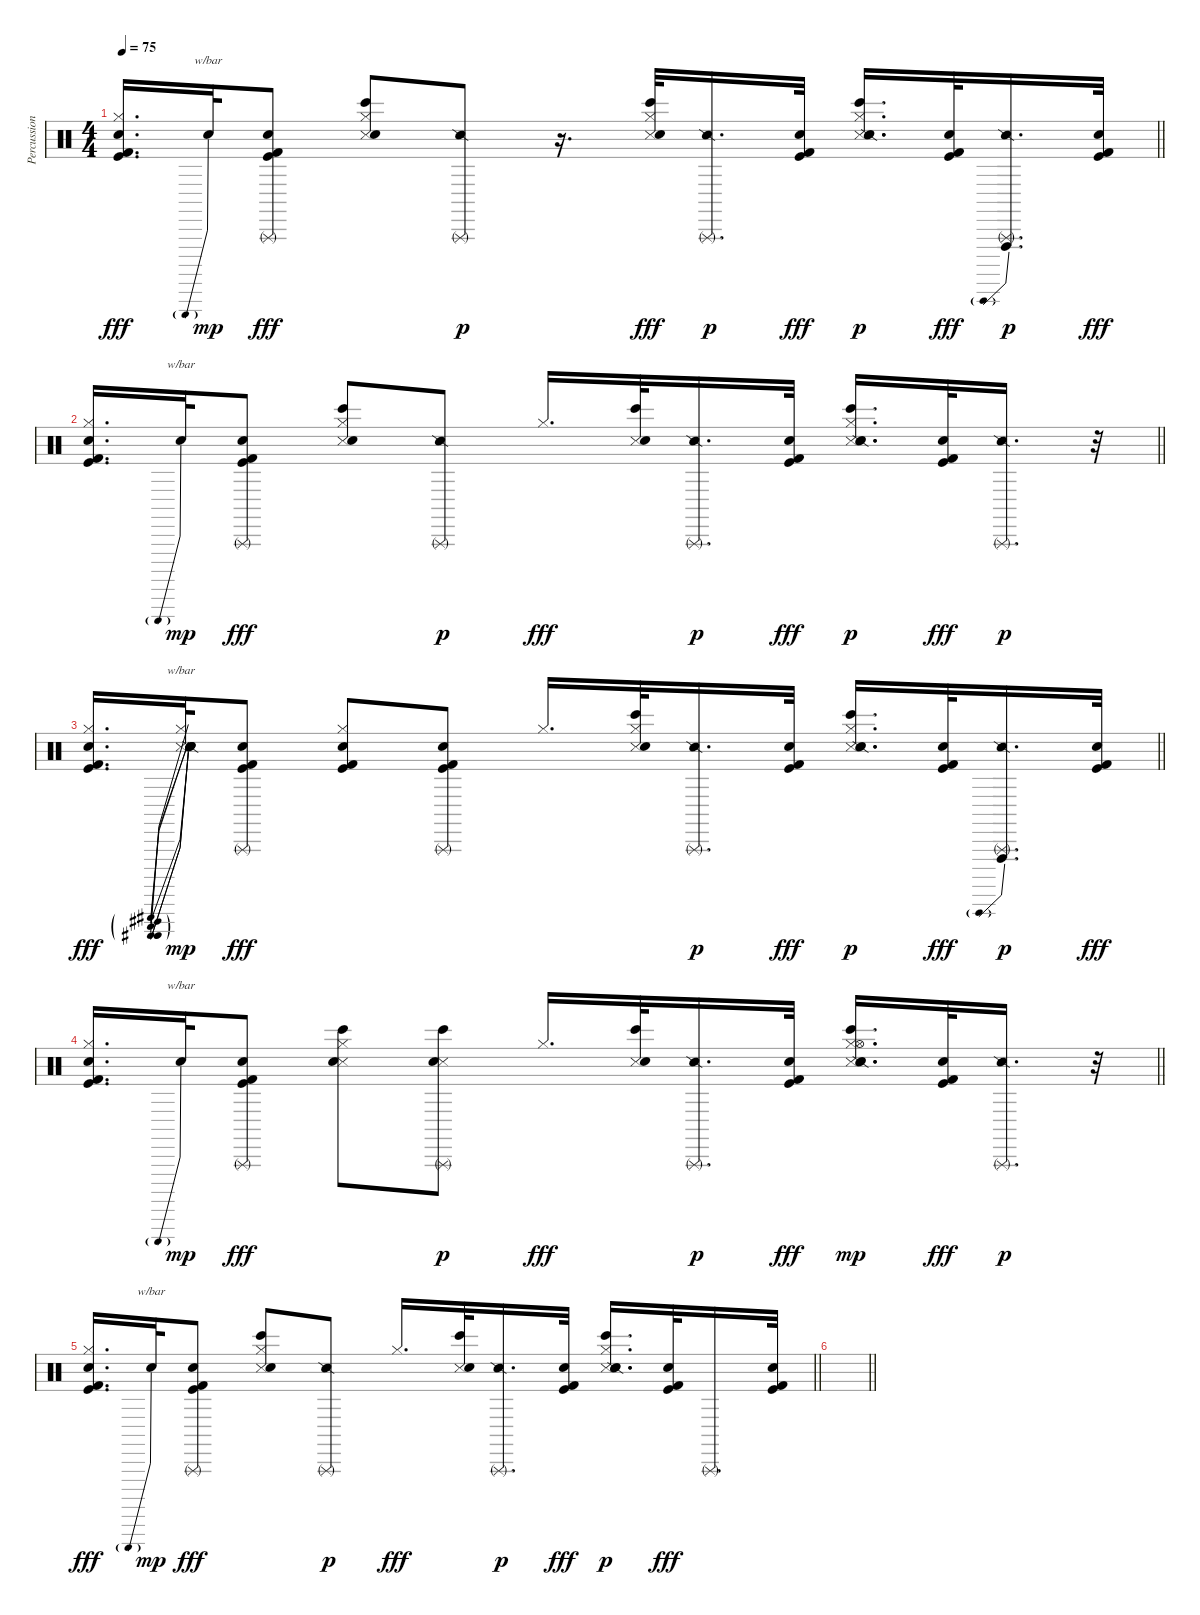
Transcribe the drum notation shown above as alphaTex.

\track ("Percussion" "Percussion") {instrument percussion}
\staff {score}
\articulation defaults
\ts (4 4)
\tempo 75
\clef neutral
\barLineRight lightlight
\ks c
("Hi-Hat (closed)" "Snare (hit) 2" "Kick (hit)" "Kick (hit) 2").16{d dy fff} "Hand Clap (hit)".32{tbe (predive default 0 24 60 24) dy mp} ("Triangle (rnute)" "Snare (hit) 2" "Kick (hit)" "Kick (hit) 2").8{dy fff} ("Hi-Hat (closed)" "Snare (side stick) 3" "Snare (hit) 2" "Bongo High (hit)").8 ("Triangle (rnute)" "Snare (side stick) 2").8{dy p} r.16{d} ("Hi-Hat (closed)" "Snare (side stick) 3" "Snare (hit) 2" "Bongo High (hit)").32{dy fff} ("Triangle (rnute)" "Snare (side stick) 2").16{d dy p} ("Snare (hit) 2" "Kick (hit)" "Kick (hit) 2").32{dy fff} ("Hi-Hat (closed)" "Snare (side stick) 3" "Snare (hit) 2" "Bongo High (hit)" "Snare (side stick) 2").16{d dy p} ("Snare (hit) 2" "Kick (hit)" "Kick (hit) 2").32{dy fff} ("Triangle (rnute)" "Snare (side stick) 2" "Vibraslap (hit)"{be (prebend 0 12 60 12)}).16{d dy p} ("Snare (hit) 2" "Kick (hit)" "Kick (hit) 2").32{dy fff} |
\barLineRight lightlight
("Hi-Hat (closed)" "Snare (hit) 2" "Kick (hit)" "Kick (hit) 2").16{d} "Hand Clap (hit)".32{tbe (predive default 0 24 60 24) dy mp} ("Triangle (rnute)" "Snare (hit) 2" "Kick (hit)" "Kick (hit) 2").8{dy fff} ("Hi-Hat (closed)" "Snare (side stick) 3" "Snare (hit) 2" "Bongo High (hit)").8 ("Triangle (rnute)" "Snare (side stick) 2").8{dy p} "Hi-Hat (closed)".16{d dy fff} ("Snare (side stick) 3" "Snare (hit) 2" "Bongo High (hit)").32 ("Triangle (rnute)" "Snare (side stick) 2").16{d dy p} ("Snare (hit) 2" "Kick (hit)" "Kick (hit) 2").32{dy fff} ("Hi-Hat (closed)" "Snare (side stick) 3" "Snare (hit) 2" "Bongo High (hit)" "Snare (side stick) 2").16{d dy p} ("Snare (hit) 2" "Kick (hit)" "Kick (hit) 2").32{dy fff} ("Triangle (rnute)" "Snare (side stick) 2").16{d dy p} r.32 |
\barLineRight lightlight
("Hi-Hat (closed)" "Snare (hit) 2" "Kick (hit)" "Kick (hit) 2").16{d dy fff} ("Hi-Hat (closed)" "Snare (side stick) 3" "Hand Clap (hit)" "Snare (hit) 2" "Snare (hit)" "Snare (side stick) 2").32{tbe (predive default 0 24 60 24) dy mp} ("Triangle (rnute)" "Snare (hit) 2" "Kick (hit)" "Kick (hit) 2").8{dy fff} ("Hi-Hat (closed)" "Snare (hit) 2" "Kick (hit)" "Kick (hit) 2").8 ("Triangle (rnute)" "Snare (hit) 2" "Kick (hit)" "Kick (hit) 2").8 "Hi-Hat (closed)".16{d} ("Hi-Hat (closed)" "Snare (side stick) 3" "Snare (hit) 2" "Bongo High (hit)").32 ("Triangle (rnute)" "Snare (side stick) 2").16{d dy p} ("Snare (hit) 2" "Kick (hit)" "Kick (hit) 2").32{dy fff} ("Hi-Hat (closed)" "Snare (side stick) 3" "Snare (hit) 2" "Bongo High (hit)" "Snare (side stick) 2").16{d dy p} ("Snare (hit) 2" "Kick (hit)" "Kick (hit) 2").32{dy fff} ("Triangle (rnute)" "Snare (side stick) 2" "Vibraslap (hit)"{be (prebend 0 12 60 12)}).16{d dy p} ("Snare (hit) 2" "Kick (hit)" "Kick (hit) 2").32{dy fff} |
\barLineRight lightlight
("Hi-Hat (closed)" "Snare (hit) 2" "Kick (hit)" "Kick (hit) 2").16{d} "Hand Clap (hit)".32{tbe (predive default 0 24 60 24) dy mp} ("Triangle (rnute)" "Snare (hit) 2" "Kick (hit)" "Kick (hit) 2").8{dy fff} ("Hi-Hat (closed)" "Snare (side stick) 3" "Snare (hit) 2" "Bongo High (hit)").8 ("Triangle (rnute)" "Snare (side stick) 3" "Snare (hit) 2" "Bongo High (hit)").8{dy p} "Hi-Hat (closed)".16{d dy fff} ("Snare (side stick) 3" "Snare (hit) 2" "Bongo High (hit)").32 ("Triangle (rnute)" "Snare (side stick) 2").16{d dy p} ("Snare (hit) 2" "Kick (hit)" "Kick (hit) 2").32{dy fff} ("Hi-Hat (closed)" "Snare (side stick) 3" "Snare (hit) 2" "Bongo High (hit)" "Snare (side stick) 2" "Hi-Hat (open)").16{d dy mp} ("Snare (hit) 2" "Kick (hit)" "Kick (hit) 2").32{dy fff} ("Triangle (rnute)" "Snare (side stick) 2").16{d dy p} r.32 |
\barLineRight lightlight
("Hi-Hat (closed)" "Snare (hit) 2" "Kick (hit)" "Kick (hit) 2").16{d dy fff} "Hand Clap (hit)".32{tbe (predive default 0 24 60 24) dy mp} ("Triangle (rnute)" "Snare (hit) 2" "Kick (hit)" "Kick (hit) 2").8{dy fff} ("Hi-Hat (closed)" "Snare (side stick) 3" "Snare (hit) 2" "Bongo High (hit)").8 ("Triangle (rnute)" "Snare (side stick) 2").8{dy p} "Hi-Hat (closed)".16{d dy fff} ("Snare (side stick) 3" "Snare (hit) 2" "Bongo High (hit)").32 ("Triangle (rnute)" "Snare (side stick) 2").16{d dy p} ("Snare (hit) 2" "Kick (hit)" "Kick (hit) 2").32{dy fff} ("Hi-Hat (closed)" "Snare (side stick) 3" "Snare (hit) 2" "Bongo High (hit)" "Snare (side stick) 2").16{d dy p} ("Snare (hit) 2" "Kick (hit)" "Kick (hit) 2").32{dy fff} "Triangle (rnute)".16{d} ("Snare (hit) 2" "Kick (hit)" "Kick (hit) 2").32 |
\barLineRight lightlight
